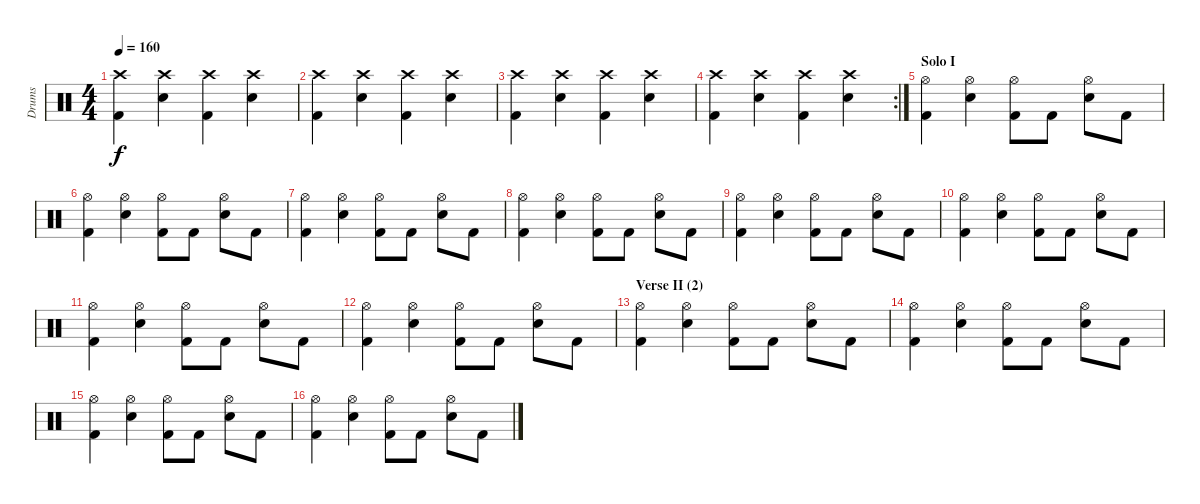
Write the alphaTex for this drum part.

\track ("Drums" "Drums") {instrument percussion}
\staff {score}
\articulation defaults
\ts (4 4)
\tempo 160
\clef neutral
\ks c
("Crash high (hit)" "Kick (hit) 2").4{dy f} ("Crash high (hit)" "Snare (hit) 2").4 ("Crash high (hit)" "Kick (hit) 2").4 ("Crash high (hit)" "Snare (hit) 2").4 |
("Crash high (hit)" "Kick (hit) 2").4 ("Crash high (hit)" "Snare (hit) 2").4 ("Crash high (hit)" "Kick (hit) 2").4 ("Crash high (hit)" "Snare (hit) 2").4 |
("Crash high (hit)" "Kick (hit) 2").4 ("Crash high (hit)" "Snare (hit) 2").4 ("Crash high (hit)" "Kick (hit) 2").4 ("Crash high (hit)" "Snare (hit) 2").4 |
\rc 2
("Crash high (hit)" "Kick (hit) 2").4 ("Crash high (hit)" "Snare (hit) 2").4 ("Crash high (hit)" "Kick (hit) 2").4 ("Crash high (hit)" "Snare (hit) 2").4 |
\section ("" "Solo I")
("Hi-Hat (open)" "Kick (hit) 2").4 ("Hi-Hat (open)" "Snare (hit) 2").4 ("Hi-Hat (open)" "Kick (hit) 2").8 "Kick (hit) 2".8 ("Hi-Hat (open)" "Snare (hit) 2").8 "Kick (hit) 2".8 |
("Hi-Hat (open)" "Kick (hit) 2").4 ("Hi-Hat (open)" "Snare (hit) 2").4 ("Hi-Hat (open)" "Kick (hit) 2").8 "Kick (hit) 2".8 ("Hi-Hat (open)" "Snare (hit) 2").8 "Kick (hit) 2".8 |
("Hi-Hat (open)" "Kick (hit) 2").4 ("Hi-Hat (open)" "Snare (hit) 2").4 ("Hi-Hat (open)" "Kick (hit) 2").8 "Kick (hit) 2".8 ("Hi-Hat (open)" "Snare (hit) 2").8 "Kick (hit) 2".8 |
("Hi-Hat (open)" "Kick (hit) 2").4 ("Hi-Hat (open)" "Snare (hit) 2").4 ("Hi-Hat (open)" "Kick (hit) 2").8 "Kick (hit) 2".8 ("Hi-Hat (open)" "Snare (hit) 2").8 "Kick (hit) 2".8 |
("Hi-Hat (open)" "Kick (hit) 2").4 ("Hi-Hat (open)" "Snare (hit) 2").4 ("Hi-Hat (open)" "Kick (hit) 2").8 "Kick (hit) 2".8 ("Hi-Hat (open)" "Snare (hit) 2").8 "Kick (hit) 2".8 |
("Hi-Hat (open)" "Kick (hit) 2").4 ("Hi-Hat (open)" "Snare (hit) 2").4 ("Hi-Hat (open)" "Kick (hit) 2").8 "Kick (hit) 2".8 ("Hi-Hat (open)" "Snare (hit) 2").8 "Kick (hit) 2".8 |
("Hi-Hat (open)" "Kick (hit) 2").4 ("Hi-Hat (open)" "Snare (hit) 2").4 ("Hi-Hat (open)" "Kick (hit) 2").8 "Kick (hit) 2".8 ("Hi-Hat (open)" "Snare (hit) 2").8 "Kick (hit) 2".8 |
("Hi-Hat (open)" "Kick (hit) 2").4 ("Hi-Hat (open)" "Snare (hit) 2").4 ("Hi-Hat (open)" "Kick (hit) 2").8 "Kick (hit) 2".8 ("Hi-Hat (open)" "Snare (hit) 2").8 "Kick (hit) 2".8 |
\section ("" "Verse II (2)")
("Hi-Hat (open)" "Kick (hit) 2").4 ("Hi-Hat (open)" "Snare (hit) 2").4 ("Hi-Hat (open)" "Kick (hit) 2").8 "Kick (hit) 2".8 ("Hi-Hat (open)" "Snare (hit) 2").8 "Kick (hit) 2".8 |
("Hi-Hat (open)" "Kick (hit) 2").4 ("Hi-Hat (open)" "Snare (hit) 2").4 ("Hi-Hat (open)" "Kick (hit) 2").8 "Kick (hit) 2".8 ("Hi-Hat (open)" "Snare (hit) 2").8 "Kick (hit) 2".8 |
("Hi-Hat (open)" "Kick (hit) 2").4 ("Hi-Hat (open)" "Snare (hit) 2").4 ("Hi-Hat (open)" "Kick (hit) 2").8 "Kick (hit) 2".8 ("Hi-Hat (open)" "Snare (hit) 2").8 "Kick (hit) 2".8 |
("Hi-Hat (open)" "Kick (hit) 2").4 ("Hi-Hat (open)" "Snare (hit) 2").4 ("Hi-Hat (open)" "Kick (hit) 2").8 "Kick (hit) 2".8 ("Hi-Hat (open)" "Snare (hit) 2").8 "Kick (hit) 2".8
